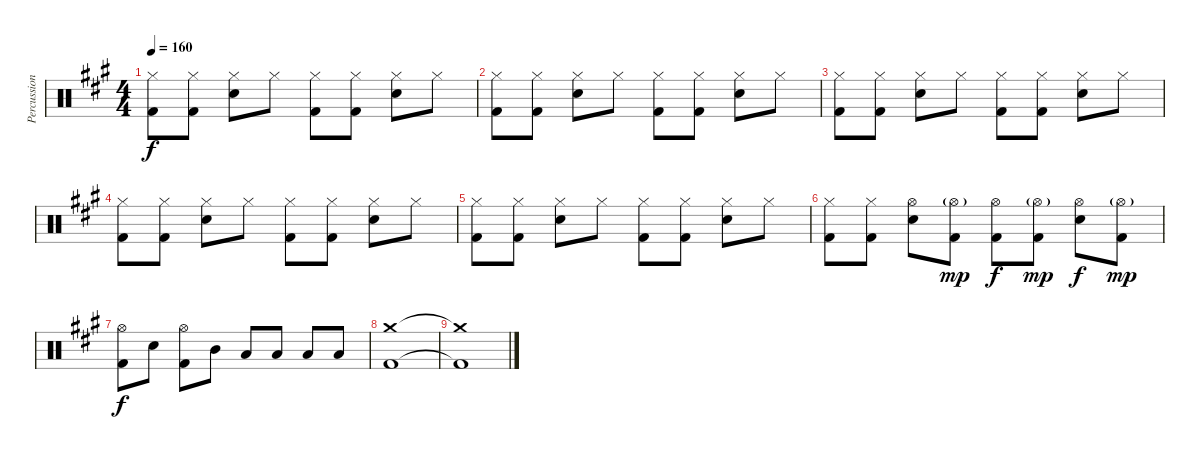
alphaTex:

\track ("Percussion" "Percussion") {instrument percussion}
\staff {score}
\articulation defaults
\ts (4 4)
\tempo 160
\clef neutral
\ks a
("Hi-Hat (closed)" "Kick (hit) 2").8{dy f} ("Hi-Hat (closed)" "Kick (hit) 2").8 ("Hi-Hat (closed)" "Electric Snare (hit)").8 "Hi-Hat (closed)".8 ("Hi-Hat (closed)" "Kick (hit) 2").8 ("Hi-Hat (closed)" "Kick (hit) 2").8 ("Hi-Hat (closed)" "Electric Snare (hit)").8 "Hi-Hat (closed)".8 |
("Hi-Hat (closed)" "Kick (hit) 2").8 ("Hi-Hat (closed)" "Kick (hit) 2").8 ("Hi-Hat (closed)" "Electric Snare (hit)").8 "Hi-Hat (closed)".8 ("Hi-Hat (closed)" "Kick (hit) 2").8 ("Hi-Hat (closed)" "Kick (hit) 2").8 ("Hi-Hat (closed)" "Electric Snare (hit)").8 "Hi-Hat (closed)".8 |
("Hi-Hat (closed)" "Kick (hit) 2").8 ("Hi-Hat (closed)" "Kick (hit) 2").8 ("Hi-Hat (closed)" "Electric Snare (hit)").8 "Hi-Hat (closed)".8 ("Hi-Hat (closed)" "Kick (hit) 2").8 ("Hi-Hat (closed)" "Kick (hit) 2").8 ("Hi-Hat (closed)" "Electric Snare (hit)").8 "Hi-Hat (closed)".8 |
("Hi-Hat (closed)" "Kick (hit) 2").8 ("Hi-Hat (closed)" "Kick (hit) 2").8 ("Hi-Hat (closed)" "Electric Snare (hit)").8 "Hi-Hat (closed)".8 ("Hi-Hat (closed)" "Kick (hit) 2").8 ("Hi-Hat (closed)" "Kick (hit) 2").8 ("Hi-Hat (closed)" "Electric Snare (hit)").8 "Hi-Hat (closed)".8 |
("Hi-Hat (closed)" "Kick (hit) 2").8 ("Hi-Hat (closed)" "Kick (hit) 2").8 ("Hi-Hat (closed)" "Electric Snare (hit)").8 "Hi-Hat (closed)".8 ("Hi-Hat (closed)" "Kick (hit) 2").8 ("Hi-Hat (closed)" "Kick (hit) 2").8 ("Hi-Hat (closed)" "Electric Snare (hit)").8 "Hi-Hat (closed)".8 |
("Hi-Hat (closed)" "Kick (hit) 2").8 ("Hi-Hat (closed)" "Kick (hit) 2").8 ("Hi-Hat (open)" "Electric Snare (hit)").8 ("Hi-Hat (open)"{g} "Kick (hit) 2").8{dy mp} ("Hi-Hat (open)" "Kick (hit) 2").8{dy f} ("Hi-Hat (open)"{g} "Kick (hit) 2").8{dy mp} ("Hi-Hat (open)" "Electric Snare (hit)").8{dy f} ("Hi-Hat (open)"{g} "Kick (hit) 2").8{dy mp} |
("Hi-Hat (open)" "Kick (hit) 2").8{dy f} "Electric Snare (hit)".8 ("Hi-Hat (open)" "Kick (hit) 2").8 "Mid Tom (hit)".8 "Low Tom (hit)".8 "Low Tom (hit)".8 "Low Floor Tom (hit)".8 "Low Floor Tom (hit)".8 |
("Crash medium (hit)" "Kick (hit) 2").1 |
("Crash medium (hit)"{t} "Kick (hit) 2"{t}).1
